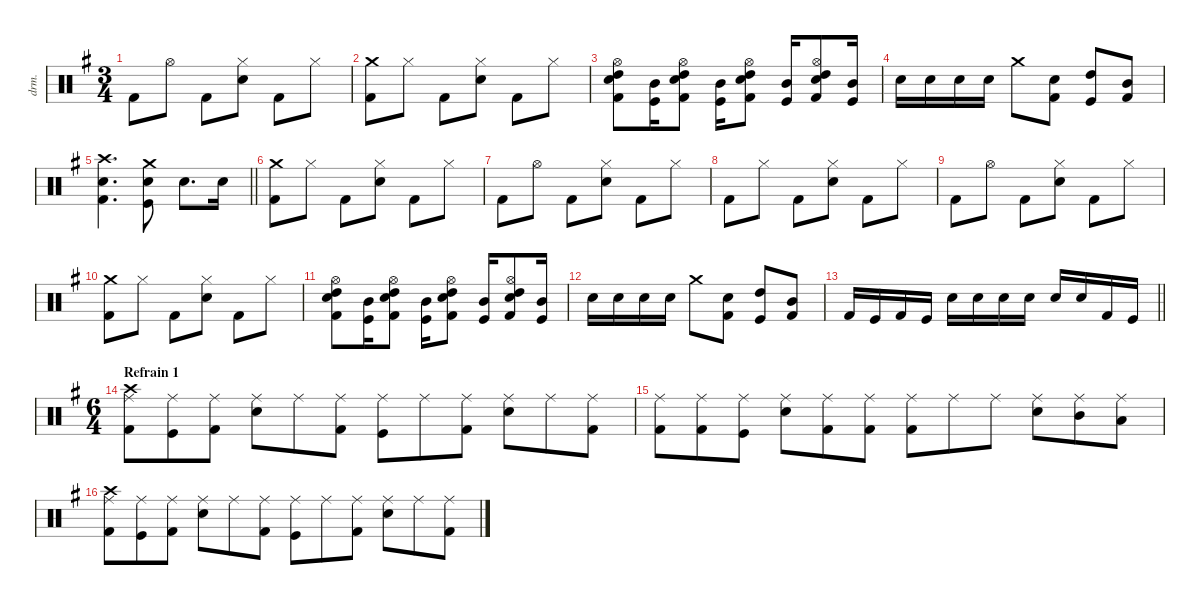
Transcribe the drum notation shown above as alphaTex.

\defaultSystemsLayout 4
\hideDynamics
\bracketExtendMode groupsimilarinstruments
\otherSystemsTrackNameOrientation horizontal
\track ("Drums" "drm.") {defaultSystemsLayout 4 instrument percussion}
\staff {score}
\articulation defaults
\ts (3 4)
\tempo (120 hide)
\clef neutral
\ks eminor "Kick (hit) 2"{acc forcenatural}.8{dy f beam Down} "Hi-Hat (open)"{acc forcenatural}.8{beam Down} "Kick (hit) 2"{acc forcenatural}.8{beam Down}
("Hi-Hat (closed)"{acc forcenatural} "Snare (hit) 2"{acc forcenatural}).8{beam Down} "Kick (hit) 2"{acc forcenatural}.8{beam Down} "Hi-Hat (closed)"{acc forcenatural}.8{beam Down} |
("Crash medium (hit)"{acc forcenatural} "Kick (hit) 2"{acc forcenatural}).8{beam Down} "Hi-Hat (closed)"{acc forcenatural}.8{beam Down} "Kick (hit) 2"{acc forcenatural}.8{beam Down} ("Hi-Hat (closed)"{acc forcenatural} "Snare (hit) 2"{acc forcenatural}).8{beam Down} "Kick (hit) 2"{acc forcenatural}.8{beam Down} "Hi-Hat (closed)"{acc forcenatural}.8{beam Down} |
("Hi-Hat (open)"{acc forcenatural} "High Tom (hit)"{acc forcenatural} "Snare (hit) 2"{acc forcenatural} "Kick (hit) 2"{acc forcenatural}).8{beam Down} ("Mid Tom (hit)"{acc forcenatural} "Kick (hit)"{acc forcenatural}).16{beam Down} ("Hi-Hat (open)"{acc forcenatural} "High Tom (hit)"{acc forcenatural} "Snare (hit) 2"{acc forcenatural} "Kick (hit) 2"{acc forcenatural}).8{beam Down} ("Mid Tom (hit)"{acc forcenatural} "Kick (hit)"{acc forcenatural}).16{beam Down} ("Hi-Hat (open)"{acc forcenatural} "High Tom (hit)"{acc forcenatural} "Snare (hit) 2"{acc forcenatural} "Kick (hit) 2"{acc forcenatural}).8{beam Down} ("Mid Tom (hit)"{acc forcenatural} "Kick (hit)"{acc forcenatural}).16{beam Up} ("Hi-Hat (open)"{acc forcenatural} "High Tom (hit)"{acc forcenatural} "Snare (hit) 2"{acc forcenatural} "Kick (hit) 2"{acc forcenatural}).8{beam Up} ("Mid Tom (hit)"{acc forcenatural} "Kick (hit)"{acc forcenatural}).16{beam Up} |
"Snare (hit) 2"{acc forcenatural}.16{beam Down} "Snare (hit) 2"{acc forcenatural}.16{beam Down} "Snare (hit) 2"{acc forcenatural}.16{beam Down} "Snare (hit) 2"{acc forcenatural}.16{beam Down} "Crash medium (hit)"{acc forcenatural}.8{beam Down} ("Snare (hit) 2"{acc forcenatural} "Kick (hit) 2"{acc forcenatural}).8{beam Down} ("High Tom (hit)"{acc forcenatural} "Kick (hit)"{acc forcenatural}).8{beam Up} ("Mid Tom (hit)"{acc forcenatural} "Kick (hit) 2"{acc forcenatural}).8{beam Up} |
\barLineRight lightlight
("Crash high (hit)"{acc forcenatural} "Snare (hit) 2"{acc forcenatural} "Kick (hit) 2"{acc forcenatural}).4{d beam Down} ("Crash medium (hit)"{acc forcenatural} "Snare (hit) 2"{acc forcenatural} "Kick (hit)"{acc forcenatural}).8{beam Down} "Snare (hit) 2"{acc forcenatural}.8{d beam Down} "Snare (hit) 2"{acc forcenatural}.16{beam Down} |
("Crash medium (hit)"{acc forcenatural} "Kick (hit) 2"{acc forcenatural}).8{beam Down} "Hi-Hat (closed)"{acc forcenatural}.8{beam Down} "Kick (hit) 2"{acc forcenatural}.8{beam Down} ("Hi-Hat (closed)"{acc forcenatural} "Snare (hit) 2"{acc forcenatural}).8{beam Down} "Kick (hit) 2"{acc forcenatural}.8{beam Down} "Hi-Hat (closed)"{acc forcenatural}.8{beam Down} |
"Kick (hit) 2"{acc forcenatural}.8{beam Down} "Hi-Hat (open)"{acc forcenatural}.8{beam Down} "Kick (hit) 2"{acc forcenatural}.8{beam Down} ("Hi-Hat (closed)"{acc forcenatural} "Snare (hit) 2"{acc forcenatural}).8{beam Down} "Kick (hit) 2"{acc forcenatural}.8{beam Down} "Hi-Hat (closed)"{acc forcenatural}.8{beam Down} |
"Kick (hit) 2"{acc forcenatural}.8{beam Down} "Hi-Hat (closed)"{acc forcenatural}.8{beam Down} "Kick (hit) 2"{acc forcenatural}.8{beam Down} ("Hi-Hat (closed)"{acc forcenatural} "Snare (hit) 2"{acc forcenatural}).8{beam Down} "Kick (hit) 2"{acc forcenatural}.8{beam Down} "Hi-Hat (closed)"{acc forcenatural}.8{beam Down} |
"Kick (hit) 2"{acc forcenatural}.8{beam Down} "Hi-Hat (open)"{acc forcenatural}.8{beam Down} "Kick (hit) 2"{acc forcenatural}.8{beam Down} ("Hi-Hat (closed)"{acc forcenatural} "Snare (hit) 2"{acc forcenatural}).8{beam Down} "Kick (hit) 2"{acc forcenatural}.8{beam Down} "Hi-Hat (closed)"{acc forcenatural}.8{beam Down} |
("Crash medium (hit)"{acc forcenatural} "Kick (hit) 2"{acc forcenatural}).8{beam Down} "Hi-Hat (closed)"{acc forcenatural}.8{beam Down} "Kick (hit) 2"{acc forcenatural}.8{beam Down} ("Hi-Hat (closed)"{acc forcenatural} "Snare (hit) 2"{acc forcenatural}).8{beam Down} "Kick (hit) 2"{acc forcenatural}.8{beam Down} "Hi-Hat (closed)"{acc forcenatural}.8{beam Down} |
("Hi-Hat (open)"{acc forcenatural} "High Tom (hit)"{acc forcenatural} "Snare (hit) 2"{acc forcenatural} "Kick (hit) 2"{acc forcenatural}).8{beam Down} ("Mid Tom (hit)"{acc forcenatural} "Kick (hit)"{acc forcenatural}).16{beam Down} ("Hi-Hat (open)"{acc forcenatural} "High Tom (hit)"{acc forcenatural} "Snare (hit) 2"{acc forcenatural} "Kick (hit) 2"{acc forcenatural}).8{beam Down} ("Mid Tom (hit)"{acc forcenatural} "Kick (hit)"{acc forcenatural}).16{beam Down} ("Hi-Hat (open)"{acc forcenatural} "High Tom (hit)"{acc forcenatural} "Snare (hit) 2"{acc forcenatural} "Kick (hit) 2"{acc forcenatural}).8{beam Down} ("Mid Tom (hit)"{acc forcenatural} "Kick (hit)"{acc forcenatural}).16{beam Up} ("Hi-Hat (open)"{acc forcenatural} "High Tom (hit)"{acc forcenatural} "Snare (hit) 2"{acc forcenatural} "Kick (hit) 2"{acc forcenatural}).8{beam Up} ("Mid Tom (hit)"{acc forcenatural} "Kick (hit)"{acc forcenatural}).16{beam Up} |
"Snare (hit) 2"{acc forcenatural}.16{beam Down} "Snare (hit) 2"{acc forcenatural}.16{beam Down} "Snare (hit) 2"{acc forcenatural}.16{beam Down} "Snare (hit) 2"{acc forcenatural}.16{beam Down} "Crash medium (hit)"{acc forcenatural}.8{beam Down} ("Snare (hit) 2"{acc forcenatural} "Kick (hit) 2"{acc forcenatural}).8{beam Down} ("High Tom (hit)"{acc forcenatural} "Kick (hit)"{acc forcenatural}).8{beam Up} ("Mid Tom (hit)"{acc forcenatural} "Kick (hit) 2"{acc forcenatural}).8{beam Up} |
\barLineRight lightlight "Kick (hit) 2"{acc forcenatural}.16{beam Up} "Kick (hit)"{acc forcenatural}.16{beam Up} "Kick (hit) 2"{acc forcenatural}.16{beam Up} "Kick (hit)"{acc forcenatural}.16{beam Up} "Snare (hit) 2"{acc forcenatural}.16{beam Down} "Snare (hit) 2"{acc forcenatural}.16{beam Down} "Snare (hit) 2"{acc forcenatural}.16{beam Down} "Snare (hit) 2"{acc forcenatural}.16{beam Down} "Snare (hit) 2"{acc forcenatural}.16{beam Up} "Snare (hit) 2"{acc forcenatural}.16{beam Up} "Kick (hit) 2"{acc forcenatural}.16{beam Up} "Kick (hit)"{acc forcenatural}.16{beam Up}
|
\ts (6 4)
\beaming (8 3 3 3 3)
\section ("" "Refrain 1")
("Crash high (hit)"{acc forcenatural} "Ride (middle)"{acc forcenatural} "Kick (hit) 2"{acc forcenatural}).8{beam Down} ("Ride (middle)"{acc forcenatural} "Kick (hit)"{acc forcenatural}).8{beam Down} ("Ride (middle)"{acc forcenatural} "Kick (hit) 2"{acc forcenatural}).8{beam Down} ("Ride (middle)"{acc forcenatural} "Snare (hit) 2"{acc forcenatural}).8{beam Down} "Ride (middle)"{acc forcenatural}.8{beam Down} ("Ride (middle)"{acc forcenatural} "Kick (hit) 2"{acc forcenatural}).8{beam Down} ("Ride (middle)"{acc forcenatural} "Kick (hit)"{acc forcenatural}).8{beam Down} "Ride (middle)"{acc forcenatural}.8{beam Down} ("Ride (middle)"{acc forcenatural} "Kick (hit) 2"{acc forcenatural}).8{beam Down} ("Ride (middle)"{acc forcenatural} "Snare (hit) 2"{acc forcenatural}).8{beam Down} "Ride (middle)"{acc forcenatural}.8{beam Down} ("Ride (middle)"{acc forcenatural} "Kick (hit) 2"{acc forcenatural}).8{beam Down} |
("Ride (middle)"{acc forcenatural} "Kick (hit) 2"{acc forcenatural}).8{beam Down} ("Ride (middle)"{acc forcenatural} "Kick (hit) 2"{acc forcenatural}).8{beam Down} ("Ride (middle)"{acc forcenatural} "Kick (hit)"{acc forcenatural}).8{beam Down} ("Ride (middle)"{acc forcenatural} "Snare (hit) 2"{acc forcenatural}).8{beam Down} ("Ride (middle)"{acc forcenatural} "Kick (hit) 2"{acc forcenatural}).8{beam Down} ("Ride (middle)"{acc forcenatural} "Kick (hit) 2"{acc forcenatural}).8{beam Down} ("Ride (middle)"{acc forcenatural} "Kick (hit) 2"{acc forcenatural}).8{beam Down} "Ride (middle)"{acc forcenatural}.8{beam Down} "Ride (middle)"{acc forcenatural}.8{beam Down} ("Ride (middle)"{acc forcenatural} "Snare (hit) 2"{acc forcenatural}).8{beam Down} ("Ride (middle)"{acc forcenatural} "Mid Tom (hit)"{acc forcenatural}).8{beam Down} ("Ride (middle)"{acc forcenatural} "Low Tom (hit)"{acc forcenatural}).8{beam Down} |
("Crash high (hit)"{acc forcenatural} "Ride (middle)"{acc forcenatural} "Kick (hit) 2"{acc forcenatural}).8{beam Down} ("Ride (middle)"{acc forcenatural} "Kick (hit)"{acc forcenatural}).8{beam Down} ("Ride (middle)"{acc forcenatural} "Kick (hit) 2"{acc forcenatural}).8{beam Down} ("Ride (middle)"{acc forcenatural} "Snare (hit) 2"{acc forcenatural}).8{beam Down} "Ride (middle)"{acc forcenatural}.8{beam Down} ("Ride (middle)"{acc forcenatural} "Kick (hit) 2"{acc forcenatural}).8{beam Down} ("Ride (middle)"{acc forcenatural} "Kick (hit)"{acc forcenatural}).8{beam Down} "Ride (middle)"{acc forcenatural}.8{beam Down} ("Ride (middle)"{acc forcenatural} "Kick (hit) 2"{acc forcenatural}).8{beam Down} ("Ride (middle)"{acc forcenatural} "Snare (hit) 2"{acc forcenatural}).8{beam Down} "Ride (middle)"{acc forcenatural}.8{beam Down} ("Ride (middle)"{acc forcenatural} "Kick (hit) 2"{acc forcenatural}).8{beam Down}
